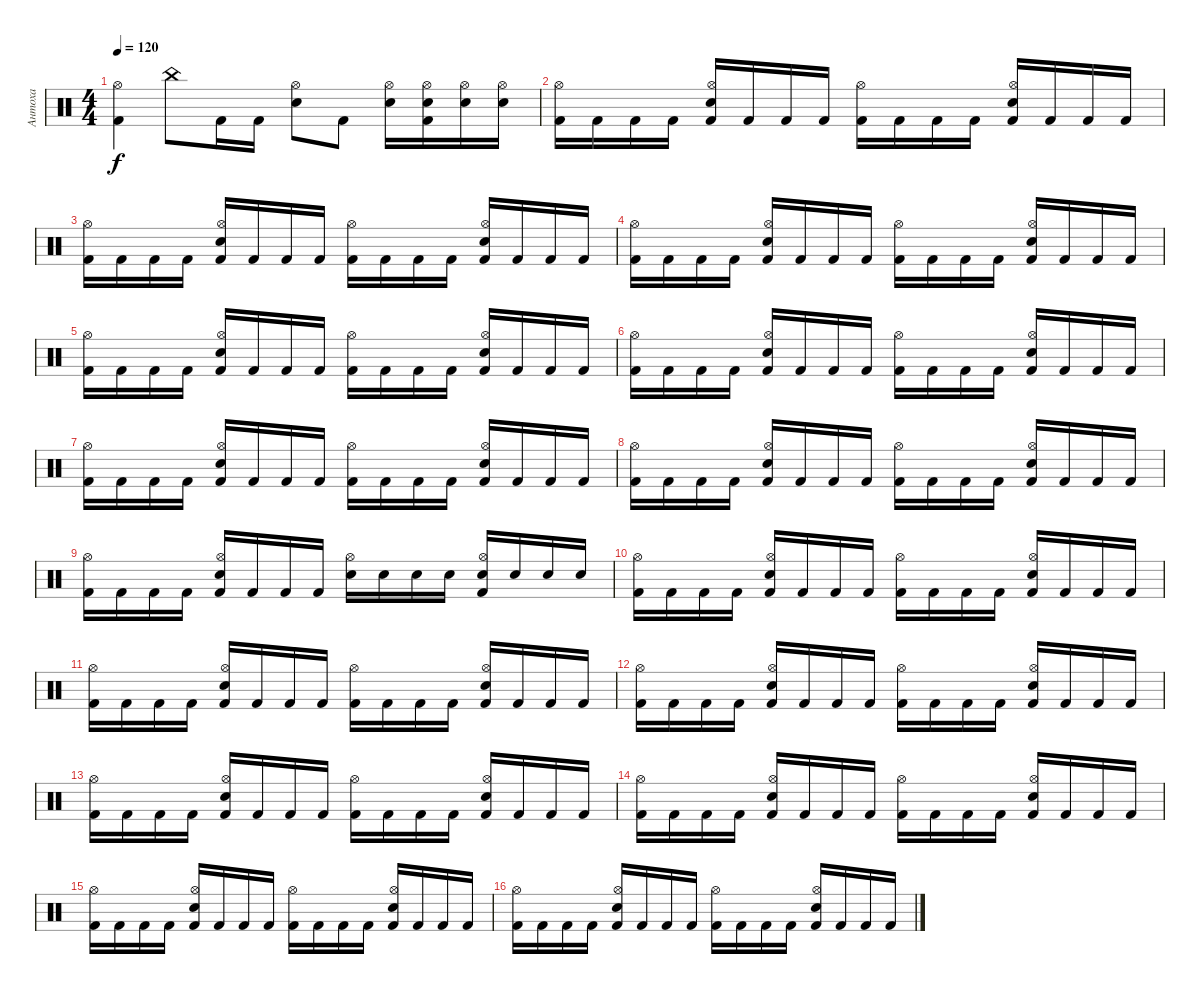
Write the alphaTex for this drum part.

\track ("Антоха" "Антоха") {instrument percussion}
\staff {score}
\articulation defaults
\ts (4 4)
\tempo 120
\clef neutral
\ks c
("Kick (hit) 2" "Hi-Hat (open)").4{dy f} "China (hit)".8 "Kick (hit) 2".16 "Kick (hit) 2".16 ("Electric Snare (hit)" "Hi-Hat (open)").8 "Kick (hit) 2".8 ("Electric Snare (hit)" "Hi-Hat (open)").16 ("Kick (hit) 2" "Electric Snare (hit)" "Hi-Hat (open)").16 ("Electric Snare (hit)" "Hi-Hat (open)").16 ("Electric Snare (hit)" "Hi-Hat (open)").16 |
("Kick (hit) 2" "Hi-Hat (open)").16 "Kick (hit) 2".16 "Kick (hit) 2".16 "Kick (hit) 2".16 ("Kick (hit) 2" "Electric Snare (hit)" "Hi-Hat (open)").16 "Kick (hit) 2".16 "Kick (hit) 2".16 "Kick (hit) 2".16 ("Kick (hit) 2" "Hi-Hat (open)").16 "Kick (hit) 2".16 "Kick (hit) 2".16 "Kick (hit) 2".16 ("Kick (hit) 2" "Electric Snare (hit)" "Hi-Hat (open)").16 "Kick (hit) 2".16 "Kick (hit) 2".16 "Kick (hit) 2".16 |
("Kick (hit) 2" "Hi-Hat (open)").16 "Kick (hit) 2".16 "Kick (hit) 2".16 "Kick (hit) 2".16 ("Kick (hit) 2" "Electric Snare (hit)" "Hi-Hat (open)").16 "Kick (hit) 2".16 "Kick (hit) 2".16 "Kick (hit) 2".16 ("Kick (hit) 2" "Hi-Hat (open)").16 "Kick (hit) 2".16 "Kick (hit) 2".16 "Kick (hit) 2".16 ("Kick (hit) 2" "Electric Snare (hit)" "Hi-Hat (open)").16 "Kick (hit) 2".16 "Kick (hit) 2".16 "Kick (hit) 2".16 |
("Kick (hit) 2" "Hi-Hat (open)").16 "Kick (hit) 2".16 "Kick (hit) 2".16 "Kick (hit) 2".16 ("Kick (hit) 2" "Electric Snare (hit)" "Hi-Hat (open)").16 "Kick (hit) 2".16 "Kick (hit) 2".16 "Kick (hit) 2".16 ("Kick (hit) 2" "Hi-Hat (open)").16 "Kick (hit) 2".16 "Kick (hit) 2".16 "Kick (hit) 2".16 ("Kick (hit) 2" "Electric Snare (hit)" "Hi-Hat (open)").16 "Kick (hit) 2".16 "Kick (hit) 2".16 "Kick (hit) 2".16 |
("Kick (hit) 2" "Hi-Hat (open)").16 "Kick (hit) 2".16 "Kick (hit) 2".16 "Kick (hit) 2".16 ("Kick (hit) 2" "Electric Snare (hit)" "Hi-Hat (open)").16 "Kick (hit) 2".16 "Kick (hit) 2".16 "Kick (hit) 2".16 ("Kick (hit) 2" "Hi-Hat (open)").16 "Kick (hit) 2".16 "Kick (hit) 2".16 "Kick (hit) 2".16 ("Kick (hit) 2" "Electric Snare (hit)" "Hi-Hat (open)").16 "Kick (hit) 2".16 "Kick (hit) 2".16 "Kick (hit) 2".16 |
("Kick (hit) 2" "Hi-Hat (open)").16 "Kick (hit) 2".16 "Kick (hit) 2".16 "Kick (hit) 2".16 ("Kick (hit) 2" "Electric Snare (hit)" "Hi-Hat (open)").16 "Kick (hit) 2".16 "Kick (hit) 2".16 "Kick (hit) 2".16 ("Kick (hit) 2" "Hi-Hat (open)").16 "Kick (hit) 2".16 "Kick (hit) 2".16 "Kick (hit) 2".16 ("Kick (hit) 2" "Electric Snare (hit)" "Hi-Hat (open)").16 "Kick (hit) 2".16 "Kick (hit) 2".16 "Kick (hit) 2".16 |
("Kick (hit) 2" "Hi-Hat (open)").16 "Kick (hit) 2".16 "Kick (hit) 2".16 "Kick (hit) 2".16 ("Kick (hit) 2" "Electric Snare (hit)" "Hi-Hat (open)").16 "Kick (hit) 2".16 "Kick (hit) 2".16 "Kick (hit) 2".16 ("Kick (hit) 2" "Hi-Hat (open)").16 "Kick (hit) 2".16 "Kick (hit) 2".16 "Kick (hit) 2".16 ("Kick (hit) 2" "Electric Snare (hit)" "Hi-Hat (open)").16 "Kick (hit) 2".16 "Kick (hit) 2".16 "Kick (hit) 2".16 |
("Kick (hit) 2" "Hi-Hat (open)").16 "Kick (hit) 2".16 "Kick (hit) 2".16 "Kick (hit) 2".16 ("Kick (hit) 2" "Electric Snare (hit)" "Hi-Hat (open)").16 "Kick (hit) 2".16 "Kick (hit) 2".16 "Kick (hit) 2".16 ("Kick (hit) 2" "Hi-Hat (open)").16 "Kick (hit) 2".16 "Kick (hit) 2".16 "Kick (hit) 2".16 ("Kick (hit) 2" "Electric Snare (hit)" "Hi-Hat (open)").16 "Kick (hit) 2".16 "Kick (hit) 2".16 "Kick (hit) 2".16 |
("Kick (hit) 2" "Hi-Hat (open)").16 "Kick (hit) 2".16 "Kick (hit) 2".16 "Kick (hit) 2".16 ("Kick (hit) 2" "Electric Snare (hit)" "Hi-Hat (open)").16 "Kick (hit) 2".16 "Kick (hit) 2".16 "Kick (hit) 2".16 ("Electric Snare (hit)" "Hi-Hat (open)").16 "Electric Snare (hit)".16 "Electric Snare (hit)".16 "Electric Snare (hit)".16 ("Kick (hit) 2" "Electric Snare (hit)" "Hi-Hat (open)").16 "Electric Snare (hit)".16 "Electric Snare (hit)".16 "Electric Snare (hit)".16 |
("Kick (hit) 2" "Hi-Hat (open)").16 "Kick (hit) 2".16 "Kick (hit) 2".16 "Kick (hit) 2".16 ("Kick (hit) 2" "Electric Snare (hit)" "Hi-Hat (open)").16 "Kick (hit) 2".16 "Kick (hit) 2".16 "Kick (hit) 2".16 ("Kick (hit) 2" "Hi-Hat (open)").16 "Kick (hit) 2".16 "Kick (hit) 2".16 "Kick (hit) 2".16 ("Kick (hit) 2" "Electric Snare (hit)" "Hi-Hat (open)").16 "Kick (hit) 2".16 "Kick (hit) 2".16 "Kick (hit) 2".16 |
("Kick (hit) 2" "Hi-Hat (open)").16 "Kick (hit) 2".16 "Kick (hit) 2".16 "Kick (hit) 2".16 ("Kick (hit) 2" "Electric Snare (hit)" "Hi-Hat (open)").16 "Kick (hit) 2".16 "Kick (hit) 2".16 "Kick (hit) 2".16 ("Kick (hit) 2" "Hi-Hat (open)").16 "Kick (hit) 2".16 "Kick (hit) 2".16 "Kick (hit) 2".16 ("Kick (hit) 2" "Electric Snare (hit)" "Hi-Hat (open)").16 "Kick (hit) 2".16 "Kick (hit) 2".16 "Kick (hit) 2".16 |
("Kick (hit) 2" "Hi-Hat (open)").16 "Kick (hit) 2".16 "Kick (hit) 2".16 "Kick (hit) 2".16 ("Kick (hit) 2" "Electric Snare (hit)" "Hi-Hat (open)").16 "Kick (hit) 2".16 "Kick (hit) 2".16 "Kick (hit) 2".16 ("Kick (hit) 2" "Hi-Hat (open)").16 "Kick (hit) 2".16 "Kick (hit) 2".16 "Kick (hit) 2".16 ("Kick (hit) 2" "Electric Snare (hit)" "Hi-Hat (open)").16 "Kick (hit) 2".16 "Kick (hit) 2".16 "Kick (hit) 2".16 |
("Kick (hit) 2" "Hi-Hat (open)").16 "Kick (hit) 2".16 "Kick (hit) 2".16 "Kick (hit) 2".16 ("Kick (hit) 2" "Electric Snare (hit)" "Hi-Hat (open)").16 "Kick (hit) 2".16 "Kick (hit) 2".16 "Kick (hit) 2".16 ("Kick (hit) 2" "Hi-Hat (open)").16 "Kick (hit) 2".16 "Kick (hit) 2".16 "Kick (hit) 2".16 ("Kick (hit) 2" "Electric Snare (hit)" "Hi-Hat (open)").16 "Kick (hit) 2".16 "Kick (hit) 2".16 "Kick (hit) 2".16 |
("Kick (hit) 2" "Hi-Hat (open)").16 "Kick (hit) 2".16 "Kick (hit) 2".16 "Kick (hit) 2".16 ("Kick (hit) 2" "Electric Snare (hit)" "Hi-Hat (open)").16 "Kick (hit) 2".16 "Kick (hit) 2".16 "Kick (hit) 2".16 ("Kick (hit) 2" "Hi-Hat (open)").16 "Kick (hit) 2".16 "Kick (hit) 2".16 "Kick (hit) 2".16 ("Kick (hit) 2" "Electric Snare (hit)" "Hi-Hat (open)").16 "Kick (hit) 2".16 "Kick (hit) 2".16 "Kick (hit) 2".16 |
("Kick (hit) 2" "Hi-Hat (open)").16 "Kick (hit) 2".16 "Kick (hit) 2".16 "Kick (hit) 2".16 ("Kick (hit) 2" "Electric Snare (hit)" "Hi-Hat (open)").16 "Kick (hit) 2".16 "Kick (hit) 2".16 "Kick (hit) 2".16 ("Kick (hit) 2" "Hi-Hat (open)").16 "Kick (hit) 2".16 "Kick (hit) 2".16 "Kick (hit) 2".16 ("Kick (hit) 2" "Electric Snare (hit)" "Hi-Hat (open)").16 "Kick (hit) 2".16 "Kick (hit) 2".16 "Kick (hit) 2".16 |
("Kick (hit) 2" "Hi-Hat (open)").16 "Kick (hit) 2".16 "Kick (hit) 2".16 "Kick (hit) 2".16 ("Kick (hit) 2" "Electric Snare (hit)" "Hi-Hat (open)").16 "Kick (hit) 2".16 "Kick (hit) 2".16 "Kick (hit) 2".16 ("Kick (hit) 2" "Hi-Hat (open)").16 "Kick (hit) 2".16 "Kick (hit) 2".16 "Kick (hit) 2".16 ("Kick (hit) 2" "Electric Snare (hit)" "Hi-Hat (open)").16 "Kick (hit) 2".16 "Kick (hit) 2".16 "Kick (hit) 2".16
